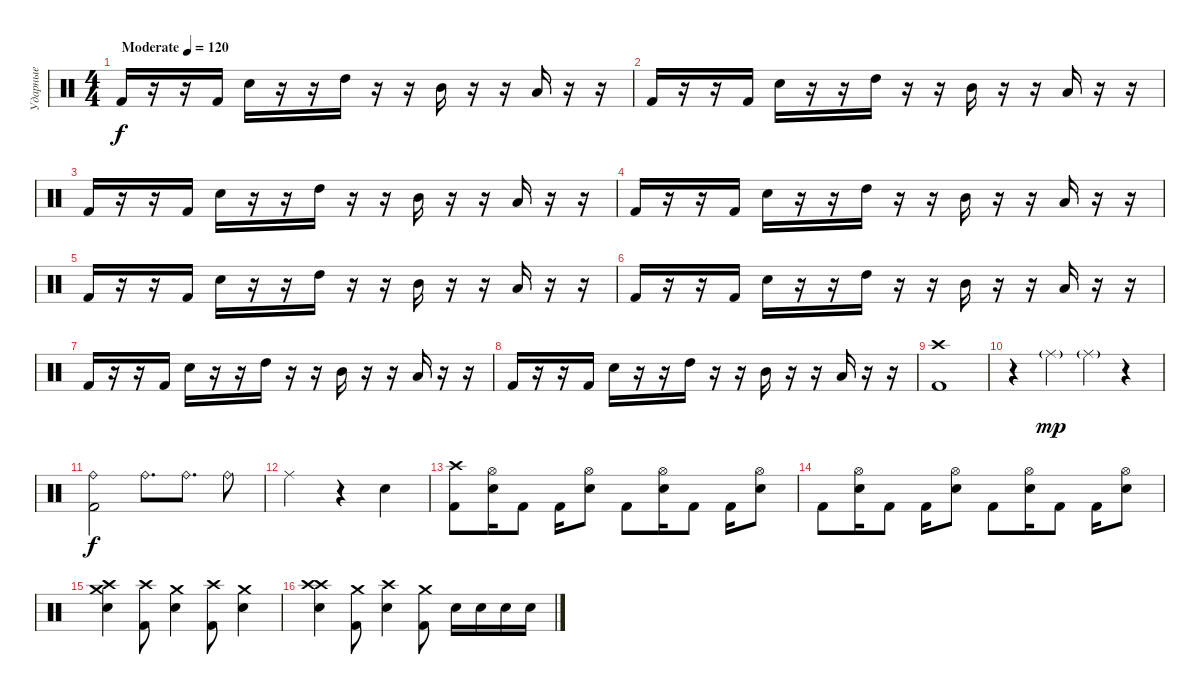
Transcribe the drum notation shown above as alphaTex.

\track ("Ударные" "Ударные") {instrument percussion}
\staff {score}
\articulation defaults
\ts (4 4)
\tempo (120 "Moderate")
\clef neutral
\ks c "Kick (hit) 2".16{dy f}
r.16 r.16 "Kick (hit) 2".16 "Snare (hit) 2".16 r.16 r.16 "High Tom (hit)".16 r.16 r.16 "Mid Tom (hit)".16 r.16 r.16 "Low Tom (hit)".16 r.16 r.16 |
"Kick (hit) 2".16 r.16 r.16 "Kick (hit) 2".16 "Snare (hit) 2".16 r.16 r.16 "High Tom (hit)".16 r.16 r.16 "Mid Tom (hit)".16 r.16 r.16 "Low Tom (hit)".16 r.16 r.16 |
"Kick (hit) 2".16 r.16 r.16 "Kick (hit) 2".16 "Snare (hit) 2".16 r.16 r.16 "High Tom (hit)".16 r.16 r.16 "Mid Tom (hit)".16 r.16 r.16 "Low Tom (hit)".16 r.16 r.16 |
"Kick (hit) 2".16 r.16 r.16 "Kick (hit) 2".16 "Snare (hit) 2".16 r.16 r.16 "High Tom (hit)".16 r.16 r.16 "Mid Tom (hit)".16 r.16 r.16 "Low Tom (hit)".16 r.16 r.16 |
"Kick (hit) 2".16 r.16 r.16 "Kick (hit) 2".16 "Snare (hit) 2".16 r.16 r.16 "High Tom (hit)".16 r.16 r.16 "Mid Tom (hit)".16 r.16 r.16 "Low Tom (hit)".16 r.16 r.16 |
"Kick (hit) 2".16 r.16 r.16 "Kick (hit) 2".16 "Snare (hit) 2".16 r.16 r.16 "High Tom (hit)".16 r.16 r.16 "Mid Tom (hit)".16 r.16 r.16 "Low Tom (hit)".16 r.16 r.16 |
"Kick (hit) 2".16 r.16 r.16 "Kick (hit) 2".16 "Snare (hit) 2".16 r.16 r.16 "High Tom (hit)".16 r.16 r.16 "Mid Tom (hit)".16 r.16 r.16 "Low Tom (hit)".16 r.16 r.16 |
"Kick (hit) 2".16 r.16 r.16 "Kick (hit) 2".16 "Snare (hit) 2".16 r.16 r.16 "High Tom (hit)".16 r.16 r.16 "Mid Tom (hit)".16 r.16 r.16 "Low Tom (hit)".16 r.16 r.16 |
("Crash high (hit)" "Kick (hit) 2").1 |
r.4 "Ride (middle)"{g}.4{dy mp} "Ride (middle)"{g}.4 r.4 |
("Ride (bell)" "Kick (hit) 2").2{dy f} "Ride (bell)".8{d} "Ride (bell)".8{d} "Ride (bell)".8 |
"Ride (middle)".2 r.4 "Snare (hit) 2".4 |
("Crash high (hit)" "Kick (hit) 2").8 ("Hi-Hat (open)" "Snare (hit) 2").16 "Kick (hit) 2".8 "Kick (hit) 2".16 ("Hi-Hat (open)" "Snare (hit) 2").8 "Kick (hit) 2".8 ("Hi-Hat (open)" "Snare (hit) 2").16 "Kick (hit) 2".8 "Kick (hit) 2".16 ("Hi-Hat (open)" "Snare (hit) 2").8 |
"Kick (hit) 2".8 ("Hi-Hat (open)" "Snare (hit) 2").16 "Kick (hit) 2".8 "Kick (hit) 2".16 ("Hi-Hat (open)" "Snare (hit) 2").8 "Kick (hit) 2".8 ("Hi-Hat (open)" "Snare (hit) 2").16 "Kick (hit) 2".8 "Kick (hit) 2".16 ("Hi-Hat (open)" "Snare (hit) 2").8 |
("Snare (hit) 2" "Crash high (hit)" "Crash medium (hit)").4 ("Kick (hit) 2" "Crash high (hit)").8 ("Snare (hit) 2" "Crash medium (hit)").4 ("Kick (hit) 2" "Crash high (hit)").8 ("Snare (hit) 2" "Crash medium (hit)").4 |
("Snare (hit) 2" "Crash high (hit)" "Crash high (hit)").4 ("Kick (hit) 2" "Crash medium (hit)").8 ("Snare (hit) 2" "Crash high (hit)").4 ("Kick (hit) 2" "Crash medium (hit)").8 "Snare (hit) 2".16 "Snare (hit) 2".16 "Snare (hit) 2".16 "Snare (hit) 2".16
